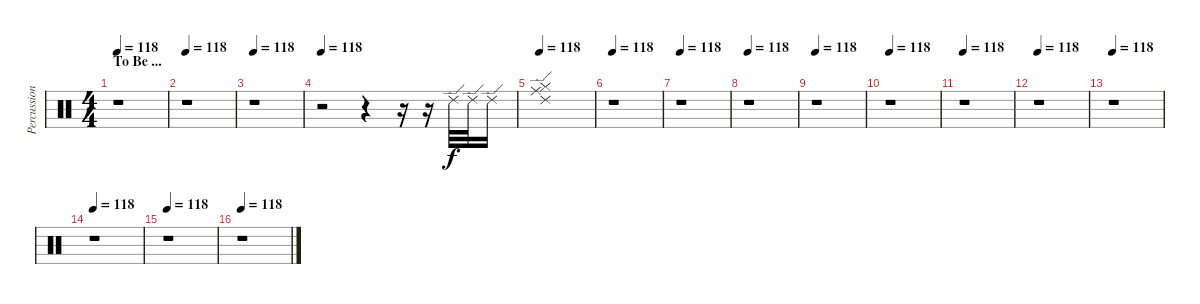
\track ("Percussions" "Percussion") {instrument percussion}
\staff {score}
\articulation defaults
\ts (4 4)
\section ("" "To Be ...")
\tempo 118
\clef neutral
\ks c
r.1{dy f} |
\tempo 118
r.1 |
\tempo 118
r.1 |
\tempo 118
r.2 r.4 r.16 r.16 "Ride (edge) 2".32 "Ride (edge) 2".32 "Ride (edge) 2".16 |
\tempo 118
("Ride (edge) 2" "Hi-Hat (closed)" "Ride (middle)").1 |
\tempo 118
r.1 |
\tempo 118
r.1 |
\tempo 118
r.1 |
\tempo 118
r.1 |
\tempo 118
r.1 |
\tempo 118
r.1 |
\tempo 118
r.1 |
\tempo 118
r.1 |
\tempo 118
r.1 |
\tempo 118
r.1 |
\tempo 118
r.1
